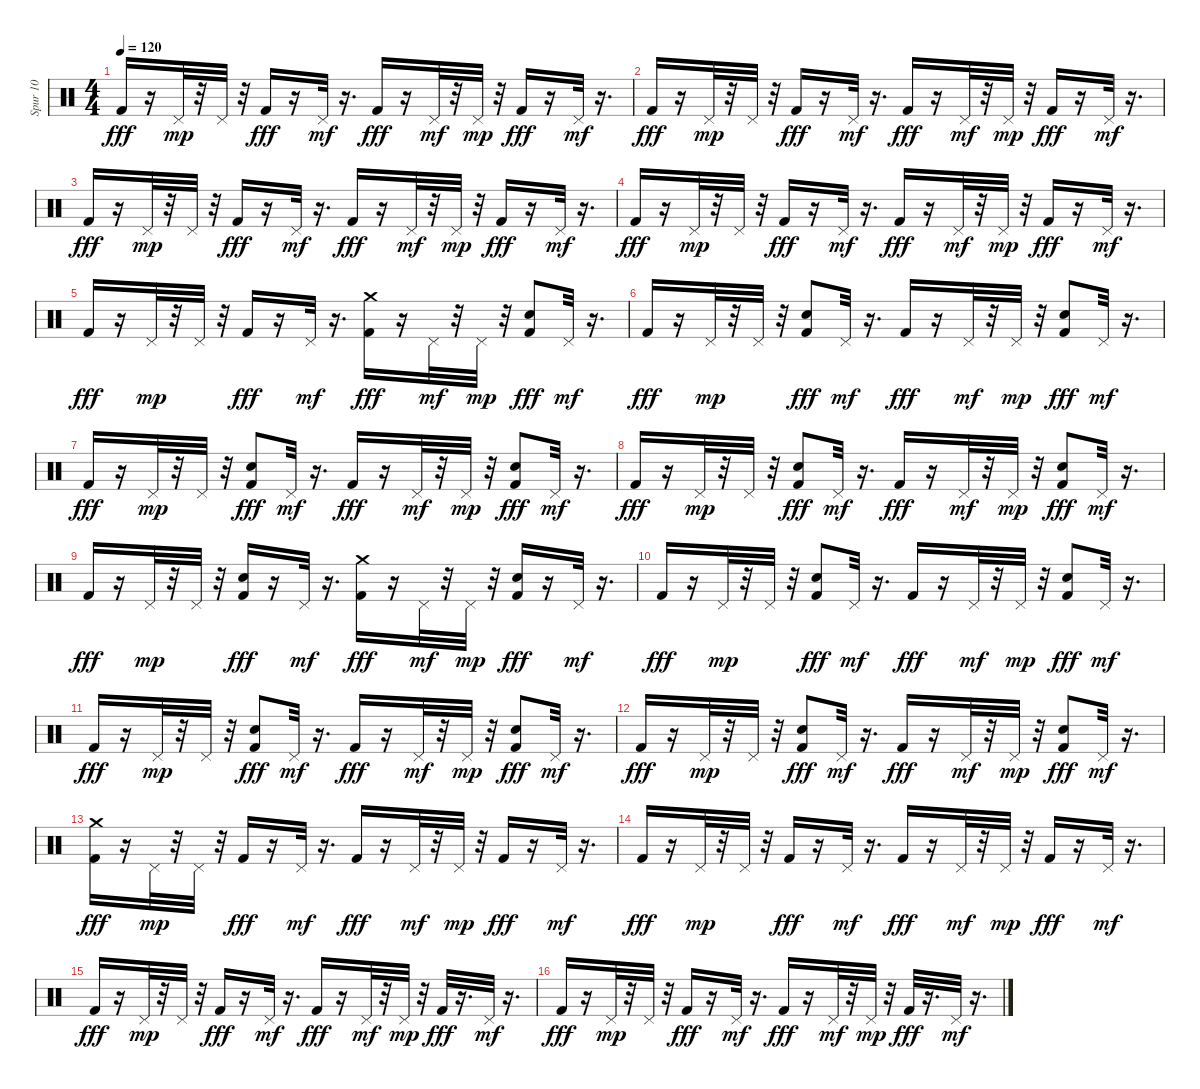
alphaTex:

\track ("Spur 10" "Spur 10") {instrument percussion}
\staff {score}
\articulation defaults
\ts (4 4)
\tempo 120
\clef neutral
\ks c "Kick (hit) 2".16{dy fff}
r.16 "Pedal Hi-Hat (hit)".32{dy mp} r.32 "Pedal Hi-Hat (hit)".32 r.32 "Kick (hit) 2".16{dy fff} r.16 "Pedal Hi-Hat (hit)".32{dy mf} r.16{d} "Kick (hit) 2".16{dy fff} r.16 "Pedal Hi-Hat (hit)".32{dy mf} r.32 "Pedal Hi-Hat (hit)".32{dy mp} r.32 "Kick (hit) 2".16{dy fff} r.16 "Pedal Hi-Hat (hit)".32{dy mf} r.16{d} |
"Kick (hit) 2".16{dy fff} r.16 "Pedal Hi-Hat (hit)".32{dy mp} r.32 "Pedal Hi-Hat (hit)".32 r.32 "Kick (hit) 2".16{dy fff} r.16 "Pedal Hi-Hat (hit)".32{dy mf} r.16{d} "Kick (hit) 2".16{dy fff} r.16 "Pedal Hi-Hat (hit)".32{dy mf} r.32 "Pedal Hi-Hat (hit)".32{dy mp} r.32 "Kick (hit) 2".16{dy fff} r.16 "Pedal Hi-Hat (hit)".32{dy mf} r.16{d} |
"Kick (hit) 2".16{dy fff} r.16 "Pedal Hi-Hat (hit)".32{dy mp} r.32 "Pedal Hi-Hat (hit)".32 r.32 "Kick (hit) 2".16{dy fff} r.16 "Pedal Hi-Hat (hit)".32{dy mf} r.16{d} "Kick (hit) 2".16{dy fff} r.16 "Pedal Hi-Hat (hit)".32{dy mf} r.32 "Pedal Hi-Hat (hit)".32{dy mp} r.32 "Kick (hit) 2".16{dy fff} r.16 "Pedal Hi-Hat (hit)".32{dy mf} r.16{d} |
"Kick (hit) 2".16{dy fff} r.16 "Pedal Hi-Hat (hit)".32{dy mp} r.32 "Pedal Hi-Hat (hit)".32 r.32 "Kick (hit) 2".16{dy fff} r.16 "Pedal Hi-Hat (hit)".32{dy mf} r.16{d} "Kick (hit) 2".16{dy fff} r.16 "Pedal Hi-Hat (hit)".32{dy mf} r.32 "Pedal Hi-Hat (hit)".32{dy mp} r.32 "Kick (hit) 2".16{dy fff} r.16 "Pedal Hi-Hat (hit)".32{dy mf} r.16{d} |
"Kick (hit) 2".16{dy fff} r.16 "Pedal Hi-Hat (hit)".32{dy mp} r.32 "Pedal Hi-Hat (hit)".32 r.32 "Kick (hit) 2".16{dy fff} r.16 "Pedal Hi-Hat (hit)".32{dy mf} r.16{d} ("Kick (hit) 2" "Crash medium (hit)").16{dy fff} r.16 "Pedal Hi-Hat (hit)".32{dy mf} r.32 "Pedal Hi-Hat (hit)".32{dy mp} r.32 ("Electric Snare (hit)" "Kick (hit) 2").8{dy fff} "Pedal Hi-Hat (hit)".32{dy mf} r.16{d} |
"Kick (hit) 2".16{dy fff} r.16 "Pedal Hi-Hat (hit)".32{dy mp} r.32 "Pedal Hi-Hat (hit)".32 r.32 ("Electric Snare (hit)" "Kick (hit) 2").8{dy fff} "Pedal Hi-Hat (hit)".32{dy mf} r.16{d} "Kick (hit) 2".16{dy fff} r.16 "Pedal Hi-Hat (hit)".32{dy mf} r.32 "Pedal Hi-Hat (hit)".32{dy mp} r.32 ("Electric Snare (hit)" "Kick (hit) 2").8{dy fff} "Pedal Hi-Hat (hit)".32{dy mf} r.16{d} |
"Kick (hit) 2".16{dy fff} r.16 "Pedal Hi-Hat (hit)".32{dy mp} r.32 "Pedal Hi-Hat (hit)".32 r.32 ("Electric Snare (hit)" "Kick (hit) 2").8{dy fff} "Pedal Hi-Hat (hit)".32{dy mf} r.16{d} "Kick (hit) 2".16{dy fff} r.16 "Pedal Hi-Hat (hit)".32{dy mf} r.32 "Pedal Hi-Hat (hit)".32{dy mp} r.32 ("Electric Snare (hit)" "Kick (hit) 2").8{dy fff} "Pedal Hi-Hat (hit)".32{dy mf} r.16{d} |
"Kick (hit) 2".16{dy fff} r.16 "Pedal Hi-Hat (hit)".32{dy mp} r.32 "Pedal Hi-Hat (hit)".32 r.32 ("Electric Snare (hit)" "Kick (hit) 2").8{dy fff} "Pedal Hi-Hat (hit)".32{dy mf} r.16{d} "Kick (hit) 2".16{dy fff} r.16 "Pedal Hi-Hat (hit)".32{dy mf} r.32 "Pedal Hi-Hat (hit)".32{dy mp} r.32 ("Electric Snare (hit)" "Kick (hit) 2").8{dy fff} "Pedal Hi-Hat (hit)".32{dy mf} r.16{d} |
"Kick (hit) 2".16{dy fff} r.16 "Pedal Hi-Hat (hit)".32{dy mp} r.32 "Pedal Hi-Hat (hit)".32 r.32 ("Electric Snare (hit)" "Kick (hit) 2").16{dy fff} r.16 "Pedal Hi-Hat (hit)".32{dy mf} r.16{d} ("Kick (hit) 2" "Crash medium (hit)").16{dy fff} r.16 "Pedal Hi-Hat (hit)".32{dy mf} r.32 "Pedal Hi-Hat (hit)".32{dy mp} r.32 ("Electric Snare (hit)" "Kick (hit) 2").16{dy fff} r.16 "Pedal Hi-Hat (hit)".32{dy mf} r.16{d} |
"Kick (hit) 2".16{dy fff} r.16 "Pedal Hi-Hat (hit)".32{dy mp} r.32 "Pedal Hi-Hat (hit)".32 r.32 ("Electric Snare (hit)" "Kick (hit) 2").8{dy fff} "Pedal Hi-Hat (hit)".32{dy mf} r.16{d} "Kick (hit) 2".16{dy fff} r.16 "Pedal Hi-Hat (hit)".32{dy mf} r.32 "Pedal Hi-Hat (hit)".32{dy mp} r.32 ("Electric Snare (hit)" "Kick (hit) 2").8{dy fff} "Pedal Hi-Hat (hit)".32{dy mf} r.16{d} |
"Kick (hit) 2".16{dy fff} r.16 "Pedal Hi-Hat (hit)".32{dy mp} r.32 "Pedal Hi-Hat (hit)".32 r.32 ("Electric Snare (hit)" "Kick (hit) 2").8{dy fff} "Pedal Hi-Hat (hit)".32{dy mf} r.16{d} "Kick (hit) 2".16{dy fff} r.16 "Pedal Hi-Hat (hit)".32{dy mf} r.32 "Pedal Hi-Hat (hit)".32{dy mp} r.32 ("Electric Snare (hit)" "Kick (hit) 2").8{dy fff} "Pedal Hi-Hat (hit)".32{dy mf} r.16{d} |
"Kick (hit) 2".16{dy fff} r.16 "Pedal Hi-Hat (hit)".32{dy mp} r.32 "Pedal Hi-Hat (hit)".32 r.32 ("Electric Snare (hit)" "Kick (hit) 2").8{dy fff} "Pedal Hi-Hat (hit)".32{dy mf} r.16{d} "Kick (hit) 2".16{dy fff} r.16 "Pedal Hi-Hat (hit)".32{dy mf} r.32 "Pedal Hi-Hat (hit)".32{dy mp} r.32 ("Electric Snare (hit)" "Kick (hit) 2").8{dy fff} "Pedal Hi-Hat (hit)".32{dy mf} r.16{d} |
("Kick (hit) 2" "Crash medium (hit)").16{dy fff} r.16 "Pedal Hi-Hat (hit)".32{dy mp} r.32 "Pedal Hi-Hat (hit)".32 r.32 "Kick (hit) 2".16{dy fff} r.16 "Pedal Hi-Hat (hit)".32{dy mf} r.16{d} "Kick (hit) 2".16{dy fff} r.16 "Pedal Hi-Hat (hit)".32{dy mf} r.32 "Pedal Hi-Hat (hit)".32{dy mp} r.32 "Kick (hit) 2".16{dy fff} r.16 "Pedal Hi-Hat (hit)".32{dy mf} r.16{d} |
"Kick (hit) 2".16{dy fff} r.16 "Pedal Hi-Hat (hit)".32{dy mp} r.32 "Pedal Hi-Hat (hit)".32 r.32 "Kick (hit) 2".16{dy fff} r.16 "Pedal Hi-Hat (hit)".32{dy mf} r.16{d} "Kick (hit) 2".16{dy fff} r.16 "Pedal Hi-Hat (hit)".32{dy mf} r.32 "Pedal Hi-Hat (hit)".32{dy mp} r.32 "Kick (hit) 2".16{dy fff} r.16 "Pedal Hi-Hat (hit)".32{dy mf} r.16{d} |
"Kick (hit) 2".16{dy fff} r.16 "Pedal Hi-Hat (hit)".32{dy mp} r.32 "Pedal Hi-Hat (hit)".32 r.32 "Kick (hit) 2".16{dy fff} r.16 "Pedal Hi-Hat (hit)".32{dy mf} r.16{d} "Kick (hit) 2".16{dy fff} r.16 "Pedal Hi-Hat (hit)".32{dy mf} r.32 "Pedal Hi-Hat (hit)".32{dy mp} r.32 "Kick (hit) 2".32{dy fff} r.16{d} "Pedal Hi-Hat (hit)".32{dy mf} r.16{d} |
"Kick (hit) 2".16{dy fff} r.16 "Pedal Hi-Hat (hit)".32{dy mp} r.32 "Pedal Hi-Hat (hit)".32 r.32 "Kick (hit) 2".16{dy fff} r.16 "Pedal Hi-Hat (hit)".32{dy mf} r.16{d} "Kick (hit) 2".16{dy fff} r.16 "Pedal Hi-Hat (hit)".32{dy mf} r.32 "Pedal Hi-Hat (hit)".32{dy mp} r.32 "Kick (hit) 2".32{dy fff} r.16{d} "Pedal Hi-Hat (hit)".32{dy mf} r.16{d}
